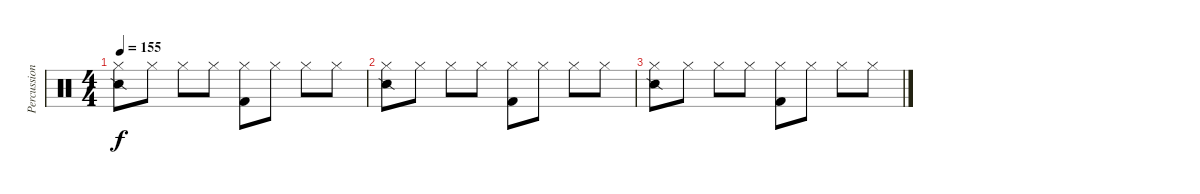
\track ("Percussions" "Percussion") {instrument percussion}
\staff {score}
\articulation defaults
\ts (4 4)
\tempo 155
\clef neutral
\ks c
("Hi-Hat (closed)" "Snare (side stick) 2").8{dy f} "Hi-Hat (closed)".8 "Hi-Hat (closed)".8 "Hi-Hat (closed)".8 ("Hi-Hat (closed)" "Kick (hit) 2").8 "Hi-Hat (closed)".8 "Hi-Hat (closed)".8 "Hi-Hat (closed)".8 |
("Hi-Hat (closed)" "Snare (side stick) 2").8{volume 0} "Hi-Hat (closed)".8 "Hi-Hat (closed)".8 "Hi-Hat (closed)".8 ("Hi-Hat (closed)" "Kick (hit) 2").8 "Hi-Hat (closed)".8 "Hi-Hat (closed)".8 "Hi-Hat (closed)".8 |
("Hi-Hat (closed)" "Snare (side stick) 2").8 "Hi-Hat (closed)".8 "Hi-Hat (closed)".8 "Hi-Hat (closed)".8 ("Hi-Hat (closed)" "Kick (hit) 2").8 "Hi-Hat (closed)".8 "Hi-Hat (closed)".8 "Hi-Hat (closed)".8
